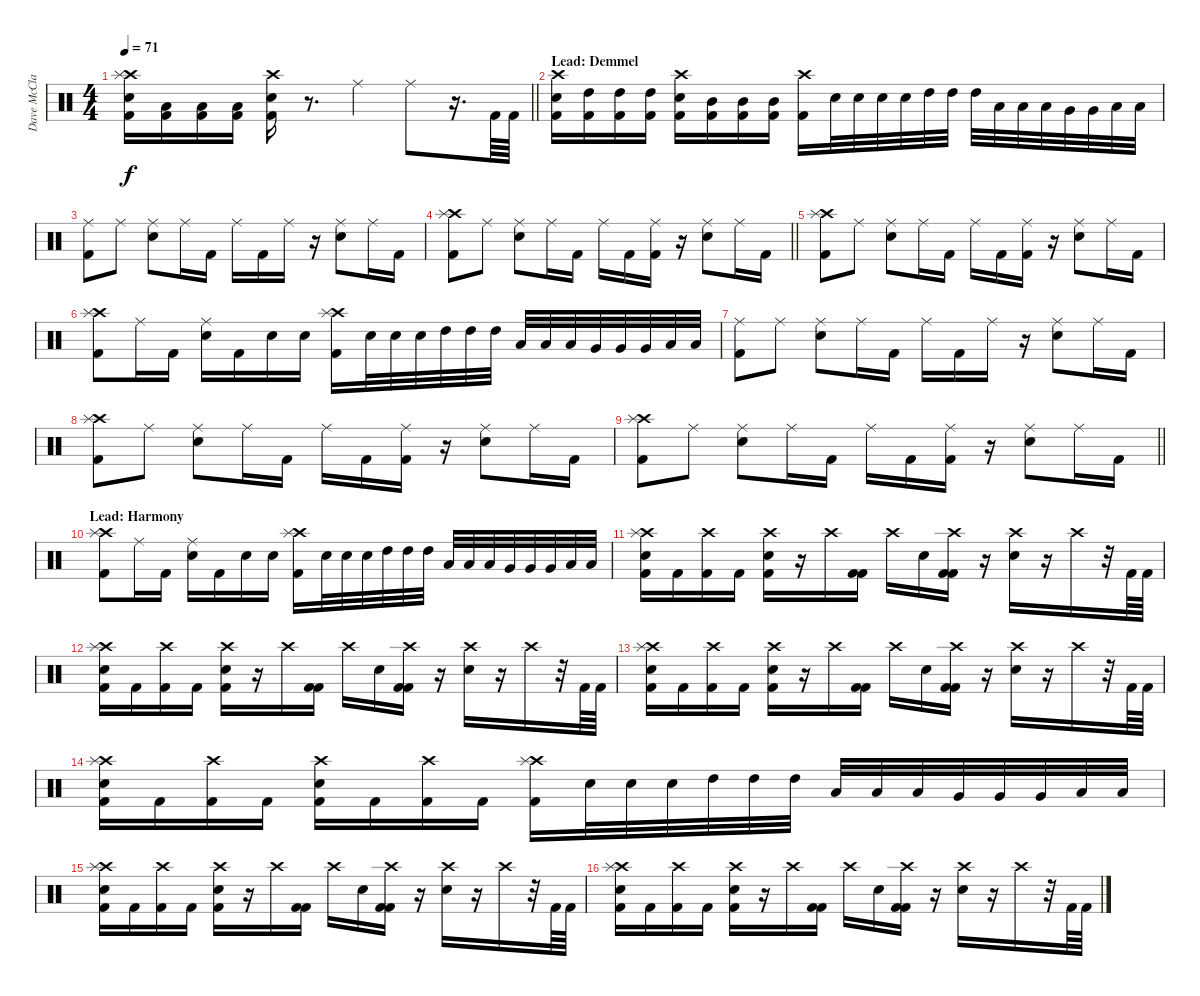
\track ("Dave McClain - Drums" "Dave McCla") {instrument percussion}
\staff {score}
\articulation defaults
\ts (4 4)
\tempo 71
\clef neutral
\barLineRight lightlight
\ks c
("Crash high (hit)" "Splash (hit)" "Electric Snare (hit)" "Kick (hit) 2").16{dy f} ("Low Tom (hit)" "Kick (hit) 2").16 ("Low Tom (hit)" "Kick (hit) 2").16 ("Low Tom (hit)" "Kick (hit) 2").16 ("Crash high (hit)" "Electric Snare (hit)" "Kick (hit) 2").16 r.8{d} "Ride (middle)".4 "Ride (middle)".8 r.16{d} "Kick (hit) 2".64 "Kick (hit) 2".64 |
\section ("" "Lead: Demmel")
("Crash high (hit)" "Electric Snare (hit)" "Kick (hit) 2").16 ("High Tom (hit)" "Kick (hit) 2").16 ("High Tom (hit)" "Kick (hit) 2").16 ("High Tom (hit)" "Kick (hit) 2").16 ("Crash high (hit)" "Electric Snare (hit)" "Kick (hit) 2").16 ("Mid Tom (hit)" "Kick (hit) 2").16 ("Mid Tom (hit)" "Kick (hit) 2").16 ("Mid Tom (hit)" "Kick (hit) 2").16 ("Crash high (hit)" "Kick (hit) 2").16 "Electric Snare (hit)".32 "Electric Snare (hit)".32 "Electric Snare (hit)".32 "Electric Snare (hit)".32 "High Tom (hit)".32 "High Tom (hit)".32 "High Tom (hit)".32 "Low Tom (hit)".32 "Low Tom (hit)".32 "Low Tom (hit)".32 "Very Low Tom (hit)".32 "Very Low Tom (hit)".32 "Low Floor Tom (hit)".32 "Low Floor Tom (hit)".32 |
("Ride (middle)" "Kick (hit) 2").8 "Ride (middle)".8 ("Ride (middle)" "Electric Snare (hit)").8 "Ride (middle)".16 "Kick (hit) 2".16 "Ride (middle)".16 "Kick (hit) 2".16 "Ride (middle)".16 r.16 ("Ride (middle)" "Electric Snare (hit)").8 "Ride (middle)".16 "Kick (hit) 2".16 |
\barLineRight lightlight
("Crash high (hit)" "Splash (hit)" "Kick (hit) 2").8 "Ride (middle)".8 ("Ride (middle)" "Electric Snare (hit)").8 "Ride (middle)".16 "Kick (hit) 2".16 "Ride (middle)".16 "Kick (hit) 2".16 ("Ride (middle)" "Kick (hit) 2").16 r.16 ("Ride (middle)" "Electric Snare (hit)").8 "Ride (middle)".16 "Kick (hit) 2".16 |
("Crash high (hit)" "Splash (hit)" "Kick (hit) 2").8 "Ride (middle)".8 ("Ride (middle)" "Electric Snare (hit)").8 "Ride (middle)".16 "Kick (hit) 2".16 "Ride (middle)".16 "Kick (hit) 2".16 ("Ride (middle)" "Kick (hit) 2").16 r.16 ("Ride (middle)" "Electric Snare (hit)").8 "Ride (middle)".16 "Kick (hit) 2".16 |
("Crash high (hit)" "Splash (hit)" "Kick (hit) 2").8 "Ride (middle)".16 "Kick (hit) 2".16 ("Ride (middle)" "Electric Snare (hit)").16 "Kick (hit) 2".16 "Electric Snare (hit)".16 "Electric Snare (hit)".16 ("Crash high (hit)" "Splash (hit)" "Kick (hit) 2").16 "Electric Snare (hit)".32 "Electric Snare (hit)".32 "Electric Snare (hit)".32 "High Tom (hit)".32 "High Tom (hit)".32 "High Tom (hit)".32 "Low Tom (hit)".32 "Low Tom (hit)".32 "Low Tom (hit)".32 "Very Low Tom (hit)".32 "Very Low Tom (hit)".32 "Very Low Tom (hit)".32 "Low Floor Tom (hit)".32 "Low Floor Tom (hit)".32 |
("Ride (middle)" "Kick (hit) 2").8 "Ride (middle)".8 ("Ride (middle)" "Electric Snare (hit)").8 "Ride (middle)".16 "Kick (hit) 2".16 "Ride (middle)".16 "Kick (hit) 2".16 "Ride (middle)".16 r.16 ("Ride (middle)" "Electric Snare (hit)").8 "Ride (middle)".16 "Kick (hit) 2".16 |
("Crash high (hit)" "Splash (hit)" "Kick (hit) 2").8 "Ride (middle)".8 ("Ride (middle)" "Electric Snare (hit)").8 "Ride (middle)".16 "Kick (hit) 2".16 "Ride (middle)".16 "Kick (hit) 2".16 ("Ride (middle)" "Kick (hit) 2").16 r.16 ("Ride (middle)" "Electric Snare (hit)").8 "Ride (middle)".16 "Kick (hit) 2".16 |
\barLineRight lightlight
("Crash high (hit)" "Splash (hit)" "Kick (hit) 2").8 "Ride (middle)".8 ("Ride (middle)" "Electric Snare (hit)").8 "Ride (middle)".16 "Kick (hit) 2".16 "Ride (middle)".16 "Kick (hit) 2".16 ("Ride (middle)" "Kick (hit) 2").16 r.16 ("Ride (middle)" "Electric Snare (hit)").8 "Ride (middle)".16 "Kick (hit) 2".16 |
\section ("" "Lead: Harmony")
("Crash high (hit)" "Splash (hit)" "Kick (hit) 2").8 "Ride (middle)".16 "Kick (hit) 2".16 ("Ride (middle)" "Electric Snare (hit)").16 "Kick (hit) 2".16 "Electric Snare (hit)".16 "Electric Snare (hit)".16 ("Crash high (hit)" "Splash (hit)" "Kick (hit) 2").16 "Electric Snare (hit)".32 "Electric Snare (hit)".32 "Electric Snare (hit)".32 "High Tom (hit)".32 "High Tom (hit)".32 "High Tom (hit)".32 "Low Tom (hit)".32 "Low Tom (hit)".32 "Low Tom (hit)".32 "Very Low Tom (hit)".32 "Very Low Tom (hit)".32 "Very Low Tom (hit)".32 "Low Floor Tom (hit)".32 "Low Floor Tom (hit)".32 |
("Crash high (hit)" "Splash (hit)" "Electric Snare (hit)" "Kick (hit) 2").16 "Kick (hit) 2".16 ("Crash high (hit)" "Kick (hit) 2").16 "Kick (hit) 2".16 ("Crash high (hit)" "Electric Snare (hit)" "Kick (hit) 2").16 r.16 "Crash high (hit)".16 ("Kick (hit) 2" "Kick (hit) 2").16 "Crash high (hit)".16 "Electric Snare (hit)".16 ("Crash high (hit)" "Kick (hit) 2" "Kick (hit) 2").16 r.16 ("Crash high (hit)" "Electric Snare (hit)").16 r.16 "Crash high (hit)".16 r.32 "Kick (hit) 2".64 "Kick (hit) 2".64 |
("Crash high (hit)" "Splash (hit)" "Electric Snare (hit)" "Kick (hit) 2").16 "Kick (hit) 2".16 ("Crash high (hit)" "Kick (hit) 2").16 "Kick (hit) 2".16 ("Crash high (hit)" "Electric Snare (hit)" "Kick (hit) 2").16 r.16 "Crash high (hit)".16 ("Kick (hit) 2" "Kick (hit) 2").16 "Crash high (hit)".16 "Electric Snare (hit)".16 ("Crash high (hit)" "Kick (hit) 2" "Kick (hit) 2").16 r.16 ("Crash high (hit)" "Electric Snare (hit)").16 r.16 "Crash high (hit)".16 r.32 "Kick (hit) 2".64 "Kick (hit) 2".64 |
("Crash high (hit)" "Splash (hit)" "Electric Snare (hit)" "Kick (hit) 2").16 "Kick (hit) 2".16 ("Crash high (hit)" "Kick (hit) 2").16 "Kick (hit) 2".16 ("Crash high (hit)" "Electric Snare (hit)" "Kick (hit) 2").16 r.16 "Crash high (hit)".16 ("Kick (hit) 2" "Kick (hit) 2").16 "Crash high (hit)".16 "Electric Snare (hit)".16 ("Crash high (hit)" "Kick (hit) 2" "Kick (hit) 2").16 r.16 ("Crash high (hit)" "Electric Snare (hit)").16 r.16 "Crash high (hit)".16 r.32 "Kick (hit) 2".64 "Kick (hit) 2".64 |
("Crash high (hit)" "Splash (hit)" "Electric Snare (hit)" "Kick (hit) 2").16 "Kick (hit) 2".16 ("Crash high (hit)" "Kick (hit) 2").16 "Kick (hit) 2".16 ("Crash high (hit)" "Electric Snare (hit)" "Kick (hit) 2").16 "Kick (hit) 2".16 ("Crash high (hit)" "Kick (hit) 2").16 "Kick (hit) 2".16 ("Crash high (hit)" "Splash (hit)" "Kick (hit) 2").16 "Electric Snare (hit)".32 "Electric Snare (hit)".32 "Electric Snare (hit)".32 "High Tom (hit)".32 "High Tom (hit)".32 "High Tom (hit)".32 "Low Tom (hit)".32 "Low Tom (hit)".32 "Low Tom (hit)".32 "Very Low Tom (hit)".32 "Very Low Tom (hit)".32 "Very Low Tom (hit)".32 "Low Floor Tom (hit)".32 "Low Floor Tom (hit)".32 |
("Crash high (hit)" "Splash (hit)" "Electric Snare (hit)" "Kick (hit) 2").16 "Kick (hit) 2".16 ("Crash high (hit)" "Kick (hit) 2").16 "Kick (hit) 2".16 ("Crash high (hit)" "Electric Snare (hit)" "Kick (hit) 2").16 r.16 "Crash high (hit)".16 ("Kick (hit) 2" "Kick (hit) 2").16 "Crash high (hit)".16 "Electric Snare (hit)".16 ("Crash high (hit)" "Kick (hit) 2" "Kick (hit) 2").16 r.16 ("Crash high (hit)" "Electric Snare (hit)").16 r.16 "Crash high (hit)".16 r.32 "Kick (hit) 2".64 "Kick (hit) 2".64 |
("Crash high (hit)" "Splash (hit)" "Electric Snare (hit)" "Kick (hit) 2").16 "Kick (hit) 2".16 ("Crash high (hit)" "Kick (hit) 2").16 "Kick (hit) 2".16 ("Crash high (hit)" "Electric Snare (hit)" "Kick (hit) 2").16 r.16 "Crash high (hit)".16 ("Kick (hit) 2" "Kick (hit) 2").16 "Crash high (hit)".16 "Electric Snare (hit)".16 ("Crash high (hit)" "Kick (hit) 2" "Kick (hit) 2").16 r.16 ("Crash high (hit)" "Electric Snare (hit)").16 r.16 "Crash high (hit)".16 r.32 "Kick (hit) 2".64 "Kick (hit) 2".64
